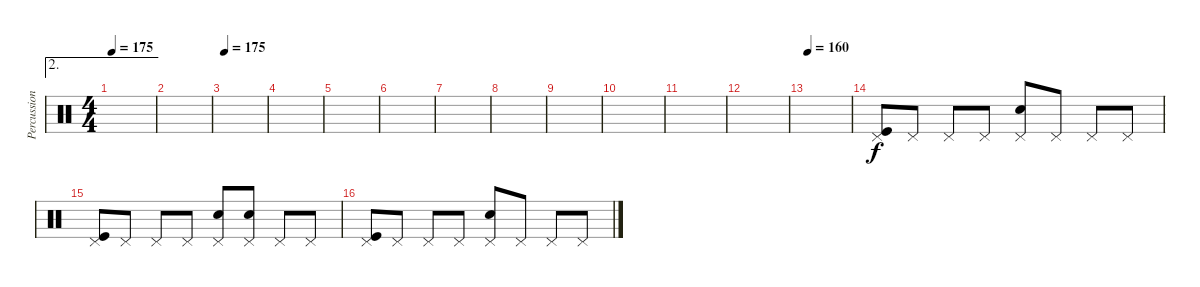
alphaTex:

\track ("Percussion" "Percussion") {instrument percussion}
\staff {score}
\articulation defaults
\ae 2
\ts (4 4)
\tempo 175
\clef neutral
\ks c
|
|
\tempo 175
|
|
|
|
|
|
|
|
|
|
\tempo 160
|
("Pedal Hi-Hat (hit)" "Kick (hit)").8 "Pedal Hi-Hat (hit)".8 "Pedal Hi-Hat (hit)".8 "Pedal Hi-Hat (hit)".8 ("Pedal Hi-Hat (hit)" "Electric Snare (hit)").8 "Pedal Hi-Hat (hit)".8 "Pedal Hi-Hat (hit)".8 "Pedal Hi-Hat (hit)".8 |
("Pedal Hi-Hat (hit)" "Kick (hit)").8 "Pedal Hi-Hat (hit)".8 "Pedal Hi-Hat (hit)".8 "Pedal Hi-Hat (hit)".8 ("Pedal Hi-Hat (hit)" "Electric Snare (hit)").8 ("Pedal Hi-Hat (hit)" "Electric Snare (hit)").8 "Pedal Hi-Hat (hit)".8 "Pedal Hi-Hat (hit)".8 |
("Pedal Hi-Hat (hit)" "Kick (hit)").8 "Pedal Hi-Hat (hit)".8 "Pedal Hi-Hat (hit)".8 "Pedal Hi-Hat (hit)".8 ("Pedal Hi-Hat (hit)" "Electric Snare (hit)").8 "Pedal Hi-Hat (hit)".8 "Pedal Hi-Hat (hit)".8 "Pedal Hi-Hat (hit)".8
